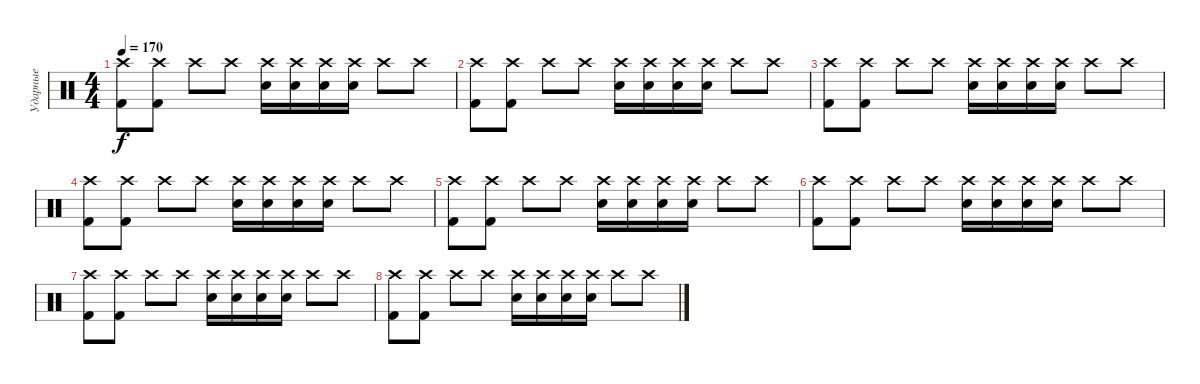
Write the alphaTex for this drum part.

\track ("Ударные" "Ударные") {instrument percussion}
\staff {score}
\articulation defaults
\ts (4 4)
\tempo 170
\clef neutral
\ks c
("Crash high (hit)" "Kick (hit) 2").8{dy f} ("Crash high (hit)" "Kick (hit) 2").8 "Crash high (hit)".8 "Crash high (hit)".8 ("Crash high (hit)" "Electric Snare (hit)").16 ("Crash high (hit)" "Electric Snare (hit)").16 ("Crash high (hit)" "Electric Snare (hit)").16 ("Crash high (hit)" "Electric Snare (hit)").16 "Crash high (hit)".8 "Crash high (hit)".8 |
("Crash high (hit)" "Kick (hit) 2").8 ("Crash high (hit)" "Kick (hit) 2").8 "Crash high (hit)".8 "Crash high (hit)".8 ("Crash high (hit)" "Electric Snare (hit)").16 ("Crash high (hit)" "Electric Snare (hit)").16 ("Crash high (hit)" "Electric Snare (hit)").16 ("Crash high (hit)" "Electric Snare (hit)").16 "Crash high (hit)".8 "Crash high (hit)".8 |
("Crash high (hit)" "Kick (hit) 2").8 ("Crash high (hit)" "Kick (hit) 2").8 "Crash high (hit)".8 "Crash high (hit)".8 ("Crash high (hit)" "Electric Snare (hit)").16 ("Crash high (hit)" "Electric Snare (hit)").16 ("Crash high (hit)" "Electric Snare (hit)").16 ("Crash high (hit)" "Electric Snare (hit)").16 "Crash high (hit)".8 "Crash high (hit)".8 |
("Crash high (hit)" "Kick (hit) 2").8 ("Crash high (hit)" "Kick (hit) 2").8 "Crash high (hit)".8 "Crash high (hit)".8 ("Crash high (hit)" "Electric Snare (hit)").16 ("Crash high (hit)" "Electric Snare (hit)").16 ("Crash high (hit)" "Electric Snare (hit)").16 ("Crash high (hit)" "Electric Snare (hit)").16 "Crash high (hit)".8 "Crash high (hit)".8 |
("Crash high (hit)" "Kick (hit) 2").8 ("Crash high (hit)" "Kick (hit) 2").8 "Crash high (hit)".8 "Crash high (hit)".8 ("Crash high (hit)" "Electric Snare (hit)").16 ("Crash high (hit)" "Electric Snare (hit)").16 ("Crash high (hit)" "Electric Snare (hit)").16 ("Crash high (hit)" "Electric Snare (hit)").16 "Crash high (hit)".8 "Crash high (hit)".8 |
("Crash high (hit)" "Kick (hit) 2").8 ("Crash high (hit)" "Kick (hit) 2").8 "Crash high (hit)".8 "Crash high (hit)".8 ("Crash high (hit)" "Electric Snare (hit)").16 ("Crash high (hit)" "Electric Snare (hit)").16 ("Crash high (hit)" "Electric Snare (hit)").16 ("Crash high (hit)" "Electric Snare (hit)").16 "Crash high (hit)".8 "Crash high (hit)".8 |
("Crash high (hit)" "Kick (hit) 2").8 ("Crash high (hit)" "Kick (hit) 2").8 "Crash high (hit)".8 "Crash high (hit)".8 ("Crash high (hit)" "Electric Snare (hit)").16 ("Crash high (hit)" "Electric Snare (hit)").16 ("Crash high (hit)" "Electric Snare (hit)").16 ("Crash high (hit)" "Electric Snare (hit)").16 "Crash high (hit)".8 "Crash high (hit)".8 |
("Crash high (hit)" "Kick (hit) 2").8 ("Crash high (hit)" "Kick (hit) 2").8 "Crash high (hit)".8 "Crash high (hit)".8 ("Crash high (hit)" "Electric Snare (hit)").16 ("Crash high (hit)" "Electric Snare (hit)").16 ("Crash high (hit)" "Electric Snare (hit)").16 ("Crash high (hit)" "Electric Snare (hit)").16 "Crash high (hit)".8 "Crash high (hit)".8
